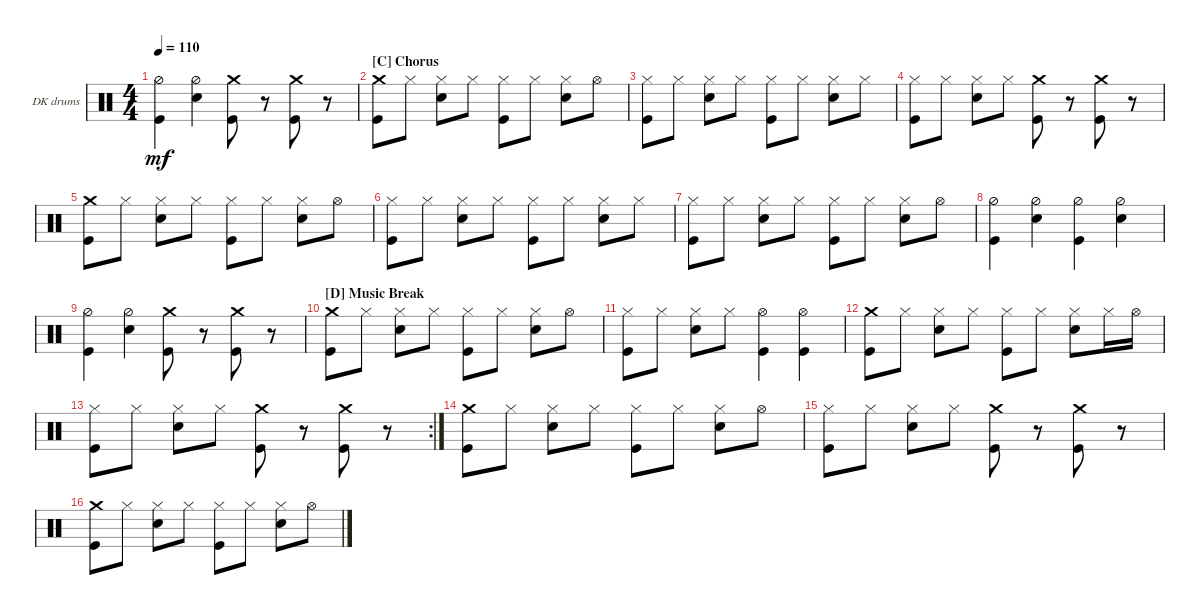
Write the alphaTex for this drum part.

\defaultSystemsLayout 4
\bracketExtendMode groupsimilarinstruments
\firstSystemTrackNameOrientation horizontal
\otherSystemsTrackNameOrientation horizontal
\track ("Dan Konopka" "DK drums") {instrument percussion}
\staff {score}
\articulation defaults
\ts (4 4)
\tempo 110
\clef neutral
\ks c
("Hi-Hat (half)" "Kick (hit)").4{dy mf} ("Hi-Hat (half)" "Snare (hit) 2").4 ("Crash medium (hit)" "Kick (hit)").8 r.8 ("Crash medium (hit)" "Kick (hit)").8 r.8 |
\section ("C" "Chorus")
("Crash medium (hit)" "Kick (hit)").8 "Hi-Hat (closed)".8 ("Hi-Hat (closed)" "Snare (hit) 2").8 "Hi-Hat (closed)".8 ("Hi-Hat (closed)" "Kick (hit)").8 "Hi-Hat (closed)".8 ("Hi-Hat (closed)" "Snare (hit) 2").8 "Hi-Hat (open)".8 |
("Hi-Hat (closed)" "Kick (hit)").8 "Hi-Hat (closed)".8 ("Hi-Hat (closed)" "Snare (hit) 2").8 "Hi-Hat (closed)".8 ("Hi-Hat (closed)" "Kick (hit)").8 "Hi-Hat (closed)".8 ("Hi-Hat (closed)" "Snare (hit) 2").8 "Hi-Hat (closed)".8 |
("Hi-Hat (closed)" "Kick (hit)").8 "Hi-Hat (closed)".8 ("Hi-Hat (closed)" "Snare (hit) 2").8 "Hi-Hat (closed)".8 ("Crash medium (hit)" "Kick (hit)").8 r.8 ("Crash medium (hit)" "Kick (hit)").8 r.8 |
("Crash medium (hit)" "Kick (hit)").8 "Hi-Hat (closed)".8 ("Hi-Hat (closed)" "Snare (hit) 2").8 "Hi-Hat (closed)".8 ("Hi-Hat (closed)" "Kick (hit)").8 "Hi-Hat (closed)".8 ("Hi-Hat (closed)" "Snare (hit) 2").8 "Hi-Hat (open)".8 |
("Hi-Hat (closed)" "Kick (hit)").8 "Hi-Hat (closed)".8 ("Hi-Hat (closed)" "Snare (hit) 2").8 "Hi-Hat (closed)".8 ("Hi-Hat (closed)" "Kick (hit)").8 "Hi-Hat (closed)".8 ("Hi-Hat (closed)" "Snare (hit) 2").8 "Hi-Hat (closed)".8 |
("Hi-Hat (closed)" "Kick (hit)").8 "Hi-Hat (closed)".8 ("Hi-Hat (closed)" "Snare (hit) 2").8 "Hi-Hat (closed)".8 ("Hi-Hat (closed)" "Kick (hit)").8 "Hi-Hat (closed)".8 ("Hi-Hat (closed)" "Snare (hit) 2").8 "Hi-Hat (open)".8 |
("Hi-Hat (half)" "Kick (hit)").4 ("Hi-Hat (half)" "Snare (hit) 2").4 ("Hi-Hat (half)" "Kick (hit)").4 ("Hi-Hat (half)" "Snare (hit) 2").4 |
("Hi-Hat (half)" "Kick (hit)").4 ("Hi-Hat (half)" "Snare (hit) 2").4 ("Crash medium (hit)" "Kick (hit)").8 r.8 ("Crash medium (hit)" "Kick (hit)").8 r.8 |
\section ("D" "Music Break")
("Crash medium (hit)" "Kick (hit)").8 "Hi-Hat (closed)".8 ("Hi-Hat (closed)" "Snare (hit) 2").8 "Hi-Hat (closed)".8 ("Hi-Hat (closed)" "Kick (hit)").8 "Hi-Hat (closed)".8 ("Hi-Hat (closed)" "Snare (hit) 2").8 "Hi-Hat (open)".8 |
("Hi-Hat (closed)" "Kick (hit)").8 "Hi-Hat (closed)".8 ("Hi-Hat (closed)" "Snare (hit) 2").8 "Hi-Hat (closed)".8 ("Hi-Hat (open)" "Kick (hit)").4 ("Hi-Hat (open)" "Kick (hit)").4 |
("Crash medium (hit)" "Kick (hit)").8 "Hi-Hat (closed)".8 ("Hi-Hat (closed)" "Snare (hit) 2").8 "Hi-Hat (closed)".8 ("Hi-Hat (closed)" "Kick (hit)").8 "Hi-Hat (closed)".8 ("Hi-Hat (closed)" "Snare (hit) 2").8 "Hi-Hat (closed)".16 "Hi-Hat (open)".16 |
\rc 2
("Hi-Hat (closed)" "Kick (hit)").8 "Hi-Hat (closed)".8 ("Hi-Hat (closed)" "Snare (hit) 2").8 "Hi-Hat (closed)".8 ("Crash medium (hit)" "Kick (hit)").8 r.8 ("Crash medium (hit)" "Kick (hit)").8 r.8 |
("Crash medium (hit)" "Kick (hit)").8 "Hi-Hat (closed)".8 ("Hi-Hat (closed)" "Snare (hit) 2").8 "Hi-Hat (closed)".8 ("Hi-Hat (closed)" "Kick (hit)").8 "Hi-Hat (closed)".8 ("Hi-Hat (closed)" "Snare (hit) 2").8 "Hi-Hat (open)".8 |
("Hi-Hat (closed)" "Kick (hit)").8 "Hi-Hat (closed)".8 ("Hi-Hat (closed)" "Snare (hit) 2").8 "Hi-Hat (closed)".8 ("Crash medium (hit)" "Kick (hit)").8 r.8 ("Crash medium (hit)" "Kick (hit)").8 r.8 |
("Crash medium (hit)" "Kick (hit)").8 "Hi-Hat (closed)".8 ("Hi-Hat (closed)" "Snare (hit) 2").8 "Hi-Hat (closed)".8 ("Hi-Hat (closed)" "Kick (hit)").8 "Hi-Hat (closed)".8 ("Hi-Hat (closed)" "Snare (hit) 2").8 "Hi-Hat (open)".8
